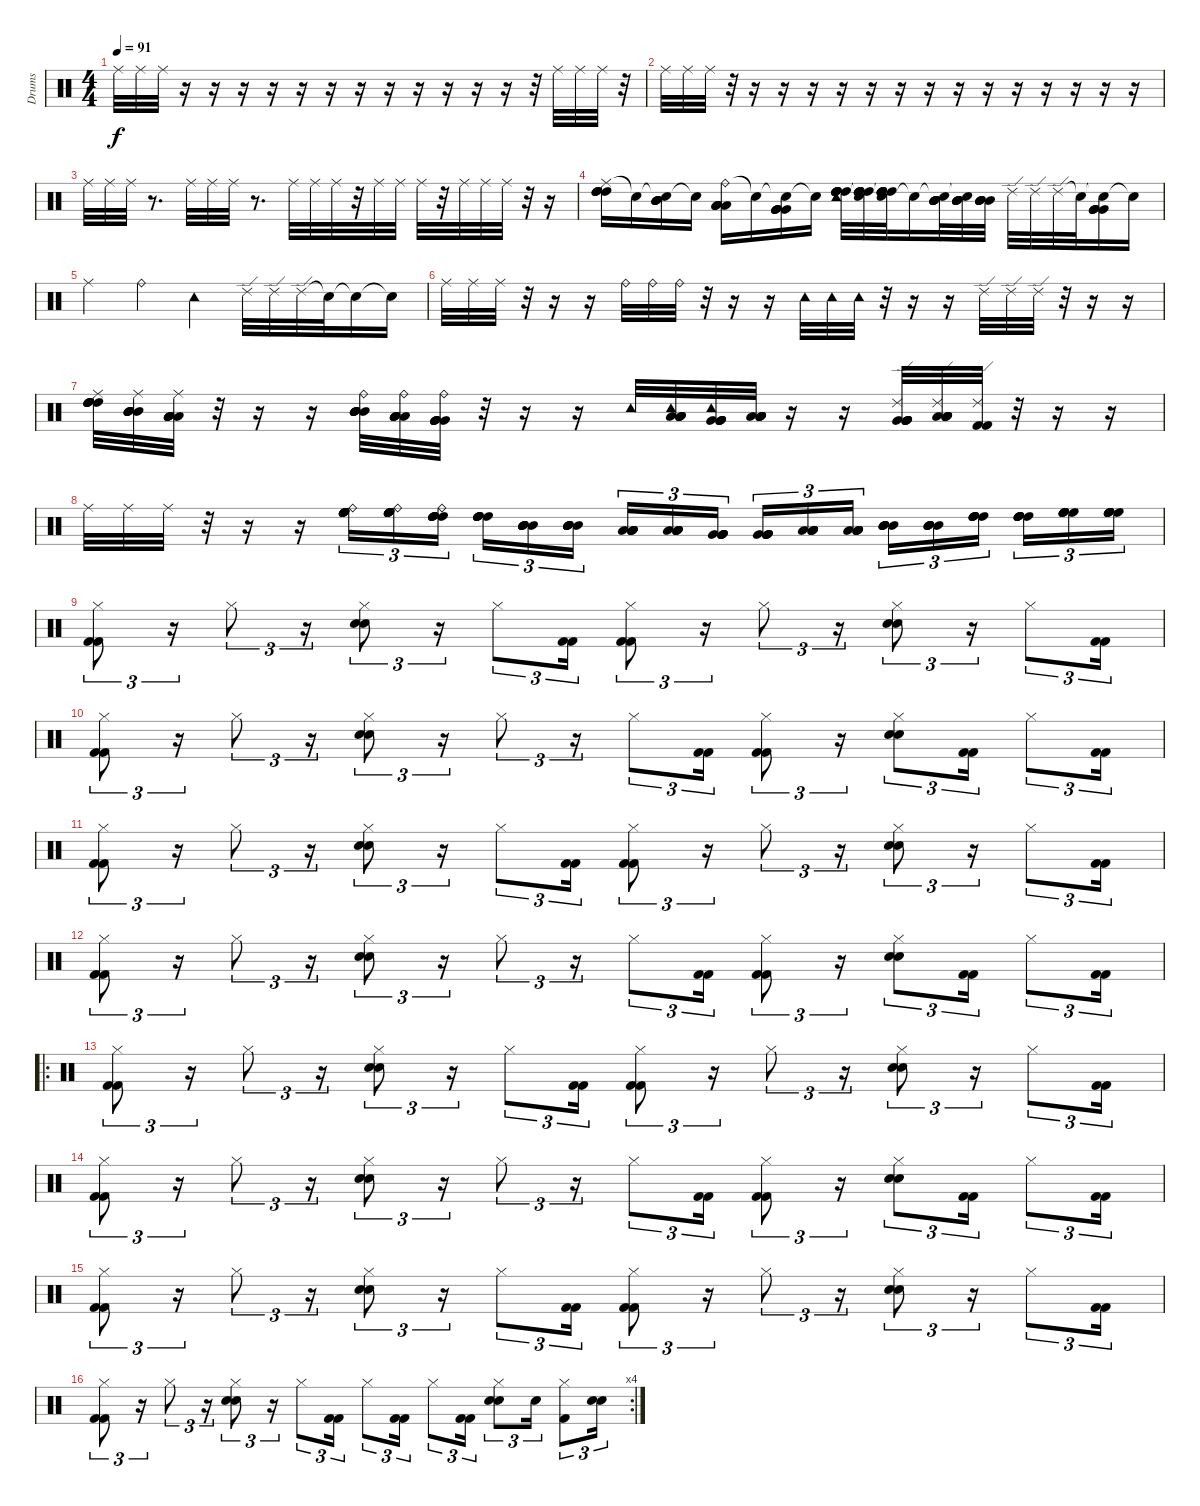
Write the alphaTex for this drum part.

\track ("Drums" "Drums") {instrument percussion}
\staff {score}
\articulation defaults
\ts (4 4)
\tempo 91
\clef neutral
\ks c "Ride (middle)".32{dy f} "Ride (middle)".32 "Ride (middle)".32
r.16 r.16 r.16 r.16 r.16 r.16 r.16 r.16 r.16 r.16 r.16 r.16 r.32 "Ride (middle)".32 "Ride (middle)".32 "Ride (middle)".32 r.32 |
"Ride (middle)".32 "Ride (middle)".32 "Ride (middle)".32 r.32 r.16 r.16 r.16 r.16 r.16 r.16 r.16 r.16 r.16 r.16 r.16 r.16 r.16 r.16 |
"Ride (middle)".32 "Ride (middle)".32 "Ride (middle)".32 r.8{d} "Ride (middle)".32 "Ride (middle)".32 "Ride (middle)".32 r.8{d} "Ride (middle)".32 "Ride (middle)".32 "Ride (middle)".32 r.32 "Ride (middle)".32 "Ride (middle)".32 "Ride (middle)".32 r.32 "Ride (middle)".32 "Ride (middle)".32 "Ride (middle)".32 r.32 r.16 |
("Ride (middle)" "High Tom (hit)" "High Tom (hit)" "High Tom (hit)" "High Tom (hit)").16 "Snare (hit)"{t}.16 ("Snare (hit)"{t} "Mid Tom (hit)" "Mid Tom (hit)" "Mid Tom (hit)" "Mid Tom (hit)").16 "Snare (hit)"{t}.16 ("Ride (bell)" "Low Tom (hit)" "Low Tom (hit)" "Low Tom (hit)" "Low Tom (hit)").16 "Snare (hit)"{t}.16 ("Snare (hit)"{t} "Very Low Tom (hit)" "Very Low Tom (hit)" "Very Low Tom (hit)" "Very Low Tom (hit)").16 "Snare (hit)"{t}.16 ("Tambourine (hit)" "High Tom (hit)" "High Tom (hit)" "High Tom (hit)" "High Tom (hit)" "High Tom (hit)").32 ("Snare (hit)"{t} "High Tom (hit)" "High Tom (hit)" "High Tom (hit)" "High Tom (hit)" "High Tom (hit)").32 ("Snare (hit)"{t} "High Tom (hit)" "High Tom (hit)" "High Tom (hit)" "High Tom (hit)" "High Tom (hit)").32 "Snare (hit)"{t}.16 ("Snare (hit)"{t} "Mid Tom (hit)" "Mid Tom (hit)" "Mid Tom (hit)" "Mid Tom (hit)" "Mid Tom (hit)").32 ("Snare (hit)"{t} "Mid Tom (hit)" "Mid Tom (hit)" "Mid Tom (hit)" "Mid Tom (hit)" "Mid Tom (hit)").32 ("Mid Tom (hit)" "Mid Tom (hit)" "Mid Tom (hit)" "Mid Tom (hit)" "Mid Tom (hit)").32 "Ride (edge) 2".32 "Ride (edge) 2".32 "Ride (edge) 2".32 "Snare (hit)"{t}.32 ("Snare (hit)"{t} "Very Low Tom (hit)" "Very Low Tom (hit)" "Very Low Tom (hit)" "Very Low Tom (hit)").16 "Snare (hit)"{t}.16 |
"Ride (middle)".4 "Ride (bell)".4 "Tambourine (hit)".4 "Ride (edge) 2".32 "Ride (edge) 2".32 "Ride (edge) 2".32 "Snare (hit)"{t}.32 "Snare (hit)"{t}.16 "Snare (hit)"{t}.16 |
"Ride (middle)".32 "Ride (middle)".32 "Ride (middle)".32 r.32 r.16 r.16 "Ride (bell)".32 "Ride (bell)".32 "Ride (bell)".32 r.32 r.16 r.16 "Tambourine (hit)".32 "Tambourine (hit)".32 "Tambourine (hit)".32 r.32 r.16 r.16 "Ride (edge) 2".32 "Ride (edge) 2".32 "Ride (edge) 2".32 r.32 r.16 r.16 |
("Ride (middle)" "High Tom (hit)" "High Tom (hit)" "High Tom (hit)" "High Tom (hit)" "High Tom (hit)").32 ("Ride (middle)" "Mid Tom (hit)" "Mid Tom (hit)" "Mid Tom (hit)" "Mid Tom (hit)" "Mid Tom (hit)").32 ("Ride (middle)" "Low Tom (hit)" "Low Tom (hit)" "Low Tom (hit)" "Low Tom (hit)" "Low Tom (hit)").32 r.32 r.16 r.16 ("Ride (bell)" "Mid Tom (hit)" "Mid Tom (hit)" "Mid Tom (hit)" "Mid Tom (hit)" "Mid Tom (hit)").32 ("Ride (bell)" "Low Tom (hit)" "Low Tom (hit)" "Low Tom (hit)" "Low Tom (hit)" "Low Tom (hit)").32 ("Ride (bell)" "Very Low Tom (hit)" "Very Low Tom (hit)" "Very Low Tom (hit)" "Very Low Tom (hit)" "Very Low Tom (hit)").32 r.32 r.16 r.16 "Tambourine (hit)".32 ("Tambourine (hit)" "Low Tom (hit)" "Low Tom (hit)" "Low Tom (hit)" "Low Tom (hit)" "Low Tom (hit)").32 ("Tambourine (hit)" "Very Low Tom (hit)" "Very Low Tom (hit)" "Very Low Tom (hit)" "Very Low Tom (hit)" "Very Low Tom (hit)").32 ("Low Floor Tom (hit)" "Low Floor Tom (hit)" "Low Floor Tom (hit)" "Low Floor Tom (hit)" "Low Floor Tom (hit)").32 r.16 r.16 ("Ride (edge) 2" "Very Low Tom (hit)" "Very Low Tom (hit)" "Very Low Tom (hit)" "Very Low Tom (hit)" "Very Low Tom (hit)").32 ("Ride (edge) 2" "Low Floor Tom (hit)" "Low Floor Tom (hit)" "Low Floor Tom (hit)" "Low Floor Tom (hit)" "Low Floor Tom (hit)").32 ("Ride (edge) 2" "Kick (hit) 2" "Kick (hit) 2").32 r.32 r.16 r.16 |
"Ride (middle)".32 "Ride (middle)".32 "Ride (middle)".32 r.32 r.16 r.16 ("Ride (bell)" "High Floor Tom (hit)" "High Floor Tom (hit)" "High Floor Tom (hit)" "High Floor Tom (hit)" "High Floor Tom (hit)").16{tu (3 2)} ("Ride (bell)" "High Floor Tom (hit)" "High Floor Tom (hit)" "High Floor Tom (hit)" "High Floor Tom (hit)" "High Floor Tom (hit)").16{tu (3 2)} ("Ride (bell)" "High Tom (hit)" "High Tom (hit)" "High Tom (hit)" "High Tom (hit)" "High Tom (hit)").16{tu (3 2)} ("High Tom (hit)" "High Tom (hit)" "High Tom (hit)" "High Tom (hit)" "High Tom (hit)").16{tu (3 2)} ("Mid Tom (hit)" "Mid Tom (hit)" "Mid Tom (hit)" "Mid Tom (hit)" "Mid Tom (hit)").16{tu (3 2)} ("Mid Tom (hit)" "Mid Tom (hit)" "Mid Tom (hit)" "Mid Tom (hit)" "Mid Tom (hit)").16{tu (3 2)} ("Low Tom (hit)" "Low Tom (hit)" "Low Tom (hit)" "Low Tom (hit)" "Low Tom (hit)").16{tu (3 2)} ("Low Tom (hit)" "Low Tom (hit)" "Low Tom (hit)" "Low Tom (hit)" "Low Tom (hit)").16{tu (3 2)} ("Very Low Tom (hit)" "Very Low Tom (hit)" "Very Low Tom (hit)" "Very Low Tom (hit)" "Very Low Tom (hit)").16{tu (3 2)} ("Very Low Tom (hit)" "Very Low Tom (hit)" "Very Low Tom (hit)" "Very Low Tom (hit)" "Very Low Tom (hit)").16{tu (3 2)} ("Low Tom (hit)" "Low Tom (hit)" "Low Tom (hit)" "Low Tom (hit)" "Low Tom (hit)").16{tu (3 2)} ("Low Tom (hit)" "Low Tom (hit)" "Low Tom (hit)" "Low Tom (hit)" "Low Tom (hit)").16{tu (3 2)} ("Mid Tom (hit)" "Mid Tom (hit)" "Mid Tom (hit)" "Mid Tom (hit)" "Mid Tom (hit)").16{tu (3 2)} ("Mid Tom (hit)" "Mid Tom (hit)" "Mid Tom (hit)" "Mid Tom (hit)" "Mid Tom (hit)").16{tu (3 2)} ("High Tom (hit)" "High Tom (hit)" "High Tom (hit)" "High Tom (hit)" "High Tom (hit)").16{tu (3 2)} ("High Tom (hit)" "High Tom (hit)" "High Tom (hit)" "High Tom (hit)" "High Tom (hit)").16{tu (3 2)} ("High Floor Tom (hit)" "High Floor Tom (hit)" "High Floor Tom (hit)" "High Floor Tom (hit)" "High Floor Tom (hit)").16{tu (3 2)} ("High Floor Tom (hit)" "High Floor Tom (hit)" "High Floor Tom (hit)" "High Floor Tom (hit)" "High Floor Tom (hit)").16{tu (3 2)} |
("Hi-Hat (closed)" "Kick (hit) 2" "Kick (hit) 2").8{tu (3 2)} r.16{tu (3 2)} "Hi-Hat (closed)".8{tu (3 2)} r.16{tu (3 2)} ("Hi-Hat (closed)" "Electric Snare (hit)" "Electric Snare (hit)").8{tu (3 2)} r.16{tu (3 2)} "Hi-Hat (closed)".8{tu (3 2)} ("Kick (hit) 2" "Kick (hit) 2").16{tu (3 2)} ("Hi-Hat (closed)" "Kick (hit) 2" "Kick (hit) 2").8{tu (3 2)} r.16{tu (3 2)} "Hi-Hat (closed)".8{tu (3 2)} r.16{tu (3 2)} ("Hi-Hat (closed)" "Electric Snare (hit)" "Electric Snare (hit)").8{tu (3 2)} r.16{tu (3 2)} "Hi-Hat (closed)".8{tu (3 2)} ("Kick (hit) 2" "Kick (hit) 2").16{tu (3 2)} |
("Hi-Hat (closed)" "Kick (hit) 2" "Kick (hit) 2").8{tu (3 2)} r.16{tu (3 2)} "Hi-Hat (closed)".8{tu (3 2)} r.16{tu (3 2)} ("Hi-Hat (closed)" "Electric Snare (hit)" "Electric Snare (hit)").8{tu (3 2)} r.16{tu (3 2)} "Hi-Hat (closed)".8{tu (3 2)} r.16{tu (3 2)} "Hi-Hat (closed)".8{tu (3 2)} ("Kick (hit) 2" "Kick (hit) 2").16{tu (3 2)} ("Hi-Hat (closed)" "Kick (hit) 2" "Kick (hit) 2").8{tu (3 2)} r.16{tu (3 2)} ("Hi-Hat (closed)" "Electric Snare (hit)" "Electric Snare (hit)").8{tu (3 2)} ("Kick (hit) 2" "Kick (hit) 2").16{tu (3 2)} "Hi-Hat (closed)".8{tu (3 2)} ("Kick (hit) 2" "Kick (hit) 2").16{tu (3 2)} |
("Hi-Hat (closed)" "Kick (hit) 2" "Kick (hit) 2").8{tu (3 2)} r.16{tu (3 2)} "Hi-Hat (closed)".8{tu (3 2)} r.16{tu (3 2)} ("Hi-Hat (closed)" "Electric Snare (hit)" "Electric Snare (hit)").8{tu (3 2)} r.16{tu (3 2)} "Hi-Hat (closed)".8{tu (3 2)} ("Kick (hit) 2" "Kick (hit) 2").16{tu (3 2)} ("Hi-Hat (closed)" "Kick (hit) 2" "Kick (hit) 2").8{tu (3 2)} r.16{tu (3 2)} "Hi-Hat (closed)".8{tu (3 2)} r.16{tu (3 2)} ("Hi-Hat (closed)" "Electric Snare (hit)" "Electric Snare (hit)").8{tu (3 2)} r.16{tu (3 2)} "Hi-Hat (closed)".8{tu (3 2)} ("Kick (hit) 2" "Kick (hit) 2").16{tu (3 2)} |
("Hi-Hat (closed)" "Kick (hit) 2" "Kick (hit) 2").8{tu (3 2)} r.16{tu (3 2)} "Hi-Hat (closed)".8{tu (3 2)} r.16{tu (3 2)} ("Hi-Hat (closed)" "Electric Snare (hit)" "Electric Snare (hit)").8{tu (3 2)} r.16{tu (3 2)} "Hi-Hat (closed)".8{tu (3 2)} r.16{tu (3 2)} "Hi-Hat (closed)".8{tu (3 2)} ("Kick (hit) 2" "Kick (hit) 2").16{tu (3 2)} ("Hi-Hat (closed)" "Kick (hit) 2" "Kick (hit) 2").8{tu (3 2)} r.16{tu (3 2)} ("Hi-Hat (closed)" "Electric Snare (hit)" "Electric Snare (hit)").8{tu (3 2)} ("Kick (hit) 2" "Kick (hit) 2").16{tu (3 2)} "Hi-Hat (closed)".8{tu (3 2)} ("Kick (hit) 2" "Kick (hit) 2").16{tu (3 2)} |
\ro
("Hi-Hat (closed)" "Kick (hit) 2" "Kick (hit) 2").8{tu (3 2)} r.16{tu (3 2)} "Hi-Hat (closed)".8{tu (3 2)} r.16{tu (3 2)} ("Hi-Hat (closed)" "Electric Snare (hit)" "Electric Snare (hit)").8{tu (3 2)} r.16{tu (3 2)} "Hi-Hat (closed)".8{tu (3 2)} ("Kick (hit) 2" "Kick (hit) 2").16{tu (3 2)} ("Hi-Hat (closed)" "Kick (hit) 2" "Kick (hit) 2").8{tu (3 2)} r.16{tu (3 2)} "Hi-Hat (closed)".8{tu (3 2)} r.16{tu (3 2)} ("Hi-Hat (closed)" "Electric Snare (hit)" "Electric Snare (hit)").8{tu (3 2)} r.16{tu (3 2)} "Hi-Hat (closed)".8{tu (3 2)} ("Kick (hit) 2" "Kick (hit) 2").16{tu (3 2)} |
("Hi-Hat (closed)" "Kick (hit) 2" "Kick (hit) 2").8{tu (3 2)} r.16{tu (3 2)} "Hi-Hat (closed)".8{tu (3 2)} r.16{tu (3 2)} ("Hi-Hat (closed)" "Electric Snare (hit)" "Electric Snare (hit)").8{tu (3 2)} r.16{tu (3 2)} "Hi-Hat (closed)".8{tu (3 2)} r.16{tu (3 2)} "Hi-Hat (closed)".8{tu (3 2)} ("Kick (hit) 2" "Kick (hit) 2").16{tu (3 2)} ("Hi-Hat (closed)" "Kick (hit) 2" "Kick (hit) 2").8{tu (3 2)} r.16{tu (3 2)} ("Hi-Hat (closed)" "Electric Snare (hit)" "Electric Snare (hit)").8{tu (3 2)} ("Kick (hit) 2" "Kick (hit) 2").16{tu (3 2)} "Hi-Hat (closed)".8{tu (3 2)} ("Kick (hit) 2" "Kick (hit) 2").16{tu (3 2)} |
("Hi-Hat (closed)" "Kick (hit) 2" "Kick (hit) 2").8{tu (3 2)} r.16{tu (3 2)} "Hi-Hat (closed)".8{tu (3 2)} r.16{tu (3 2)} ("Hi-Hat (closed)" "Electric Snare (hit)" "Electric Snare (hit)").8{tu (3 2)} r.16{tu (3 2)} "Hi-Hat (closed)".8{tu (3 2)} ("Kick (hit) 2" "Kick (hit) 2").16{tu (3 2)} ("Hi-Hat (closed)" "Kick (hit) 2" "Kick (hit) 2").8{tu (3 2)} r.16{tu (3 2)} "Hi-Hat (closed)".8{tu (3 2)} r.16{tu (3 2)} ("Hi-Hat (closed)" "Electric Snare (hit)" "Electric Snare (hit)").8{tu (3 2)} r.16{tu (3 2)} "Hi-Hat (closed)".8{tu (3 2)} ("Kick (hit) 2" "Kick (hit) 2").16{tu (3 2)} |
\rc 4
("Hi-Hat (closed)" "Kick (hit) 2" "Kick (hit) 2").8{tu (3 2)} r.16{tu (3 2)} "Hi-Hat (closed)".8{tu (3 2)} r.16{tu (3 2)} ("Hi-Hat (closed)" "Electric Snare (hit)" "Electric Snare (hit)").8{tu (3 2)} r.16{tu (3 2)} "Hi-Hat (closed)".8{tu (3 2)} ("Kick (hit) 2" "Kick (hit) 2").16{tu (3 2)} "Hi-Hat (closed)".8{tu (3 2)} ("Kick (hit) 2" "Kick (hit) 2").16{tu (3 2)} "Hi-Hat (closed)".8{tu (3 2)} ("Kick (hit) 2" "Kick (hit) 2").16{tu (3 2)} ("Hi-Hat (closed)" "Electric Snare (hit)" "Electric Snare (hit)").8{tu (3 2)} "Electric Snare (hit)".16{tu (3 2)} ("Hi-Hat (closed)" "Kick (hit) 2").8{tu (3 2)} ("Electric Snare (hit)" "Electric Snare (hit)").16{tu (3 2)}
